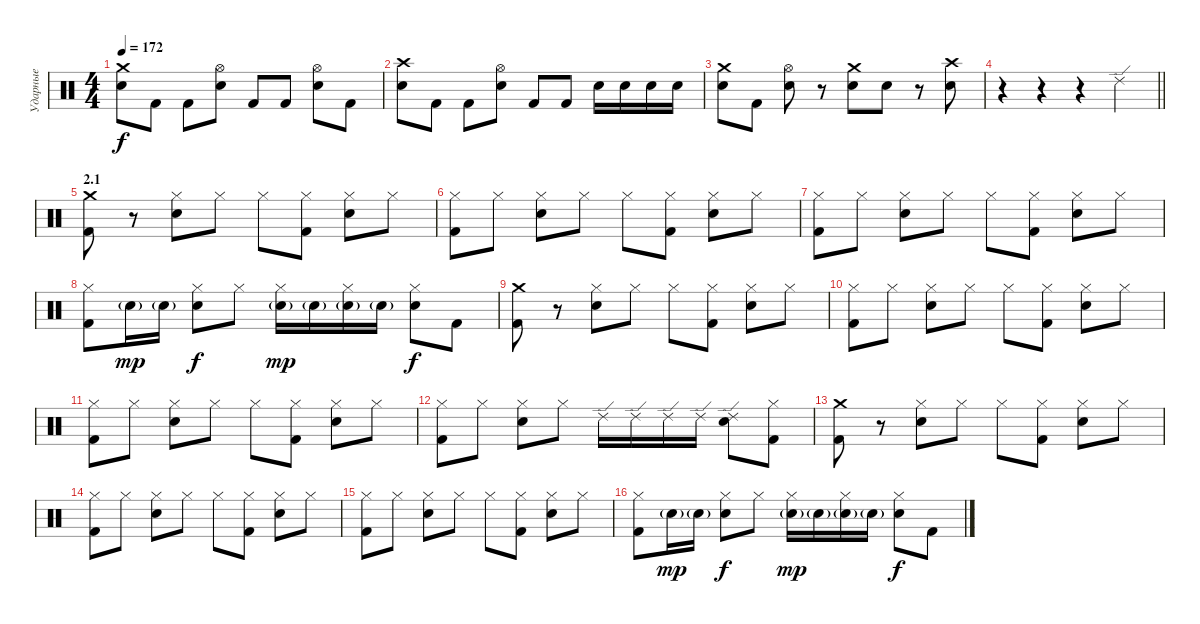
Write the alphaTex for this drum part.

\track ("Ударные" "Ударные") {instrument percussion}
\staff {score}
\articulation defaults
\ts (4 4)
\tempo 172
\clef neutral
\ks c
("Crash medium (hit)" "Electric Snare (hit)").8{dy f} "Kick (hit) 2".8 "Kick (hit) 2".8 ("Hi-Hat (open)" "Electric Snare (hit)").8 "Kick (hit) 2".8 "Kick (hit) 2".8 ("Hi-Hat (open)" "Electric Snare (hit)").8 "Kick (hit) 2".8 |
("Crash high (hit)" "Electric Snare (hit)").8 "Kick (hit) 2".8 "Kick (hit) 2".8 ("Hi-Hat (open)" "Electric Snare (hit)").8 "Kick (hit) 2".8 "Kick (hit) 2".8 "Electric Snare (hit)".16 "Electric Snare (hit)".16 "Electric Snare (hit)".16 "Electric Snare (hit)".16 |
("Crash medium (hit)" "Electric Snare (hit)").8 "Kick (hit) 2".8 ("Hi-Hat (open)" "Electric Snare (hit)").8 r.8 ("Crash medium (hit)" "Electric Snare (hit)").8 "Electric Snare (hit)".8 r.8 ("Crash high (hit)" "Electric Snare (hit)").8 |
\barLineRight lightlight
r.4 r.4 r.4 "Ride (edge) 2".4 |
\section ("" "2.1")
("Crash medium (hit)" "Kick (hit) 2").8 r.8 ("Hi-Hat (closed)" "Electric Snare (hit)").8 "Hi-Hat (closed)".8 "Hi-Hat (closed)".8 ("Hi-Hat (closed)" "Kick (hit) 2").8 ("Hi-Hat (closed)" "Electric Snare (hit)").8 "Hi-Hat (closed)".8 |
("Hi-Hat (closed)" "Kick (hit) 2").8 "Hi-Hat (closed)".8 ("Hi-Hat (closed)" "Electric Snare (hit)").8 "Hi-Hat (closed)".8 "Hi-Hat (closed)".8 ("Hi-Hat (closed)" "Kick (hit) 2").8 ("Hi-Hat (closed)" "Electric Snare (hit)").8 "Hi-Hat (closed)".8 |
("Hi-Hat (closed)" "Kick (hit) 2").8 "Hi-Hat (closed)".8 ("Hi-Hat (closed)" "Electric Snare (hit)").8 "Hi-Hat (closed)".8 "Hi-Hat (closed)".8 ("Hi-Hat (closed)" "Kick (hit) 2").8 ("Hi-Hat (closed)" "Electric Snare (hit)").8 "Hi-Hat (closed)".8 |
("Hi-Hat (closed)" "Kick (hit) 2").8 "Electric Snare (hit)"{g}.16{dy mp} "Electric Snare (hit)"{g}.16 ("Hi-Hat (closed)" "Electric Snare (hit)").8{dy f} "Hi-Hat (closed)".8 ("Hi-Hat (closed)" "Electric Snare (hit)"{g}).16{dy mp} "Electric Snare (hit)"{g}.16 ("Hi-Hat (closed)" "Electric Snare (hit)"{g}).16 "Electric Snare (hit)"{g}.16 ("Hi-Hat (closed)" "Electric Snare (hit)").8{dy f} "Kick (hit) 2".8 |
("Crash medium (hit)" "Kick (hit) 2").8 r.8 ("Hi-Hat (closed)" "Electric Snare (hit)").8 "Hi-Hat (closed)".8 "Hi-Hat (closed)".8 ("Hi-Hat (closed)" "Kick (hit) 2").8 ("Hi-Hat (closed)" "Electric Snare (hit)").8 "Hi-Hat (closed)".8 |
("Hi-Hat (closed)" "Kick (hit) 2").8 "Hi-Hat (closed)".8 ("Hi-Hat (closed)" "Electric Snare (hit)").8 "Hi-Hat (closed)".8 "Hi-Hat (closed)".8 ("Hi-Hat (closed)" "Kick (hit) 2").8 ("Hi-Hat (closed)" "Electric Snare (hit)").8 "Hi-Hat (closed)".8 |
("Hi-Hat (closed)" "Kick (hit) 2").8 "Hi-Hat (closed)".8 ("Hi-Hat (closed)" "Electric Snare (hit)").8 "Hi-Hat (closed)".8 "Hi-Hat (closed)".8 ("Hi-Hat (closed)" "Kick (hit) 2").8 ("Hi-Hat (closed)" "Electric Snare (hit)").8 "Hi-Hat (closed)".8 |
("Hi-Hat (closed)" "Kick (hit) 2").8 "Hi-Hat (closed)".8 ("Hi-Hat (closed)" "Electric Snare (hit)").8 "Hi-Hat (closed)".8 "Ride (edge) 2".16 "Ride (edge) 2".16 "Ride (edge) 2".16 "Ride (edge) 2".16 ("Ride (edge) 2" "Electric Snare (hit)").8 ("Hi-Hat (closed)" "Kick (hit) 2").8 |
("Crash medium (hit)" "Kick (hit) 2").8 r.8 ("Hi-Hat (closed)" "Electric Snare (hit)").8 "Hi-Hat (closed)".8 "Hi-Hat (closed)".8 ("Hi-Hat (closed)" "Kick (hit) 2").8 ("Hi-Hat (closed)" "Electric Snare (hit)").8 "Hi-Hat (closed)".8 |
("Hi-Hat (closed)" "Kick (hit) 2").8 "Hi-Hat (closed)".8 ("Hi-Hat (closed)" "Electric Snare (hit)").8 "Hi-Hat (closed)".8 "Hi-Hat (closed)".8 ("Hi-Hat (closed)" "Kick (hit) 2").8 ("Hi-Hat (closed)" "Electric Snare (hit)").8 "Hi-Hat (closed)".8 |
("Hi-Hat (closed)" "Kick (hit) 2").8 "Hi-Hat (closed)".8 ("Hi-Hat (closed)" "Electric Snare (hit)").8 "Hi-Hat (closed)".8 "Hi-Hat (closed)".8 ("Hi-Hat (closed)" "Kick (hit) 2").8 ("Hi-Hat (closed)" "Electric Snare (hit)").8 "Hi-Hat (closed)".8 |
("Hi-Hat (closed)" "Kick (hit) 2").8 "Electric Snare (hit)"{g}.16{dy mp} "Electric Snare (hit)"{g}.16 ("Hi-Hat (closed)" "Electric Snare (hit)").8{dy f} "Hi-Hat (closed)".8 ("Hi-Hat (closed)" "Electric Snare (hit)"{g}).16{dy mp} "Electric Snare (hit)"{g}.16 ("Hi-Hat (closed)" "Electric Snare (hit)"{g}).16 "Electric Snare (hit)"{g}.16 ("Hi-Hat (closed)" "Electric Snare (hit)").8{dy f} "Kick (hit) 2".8
